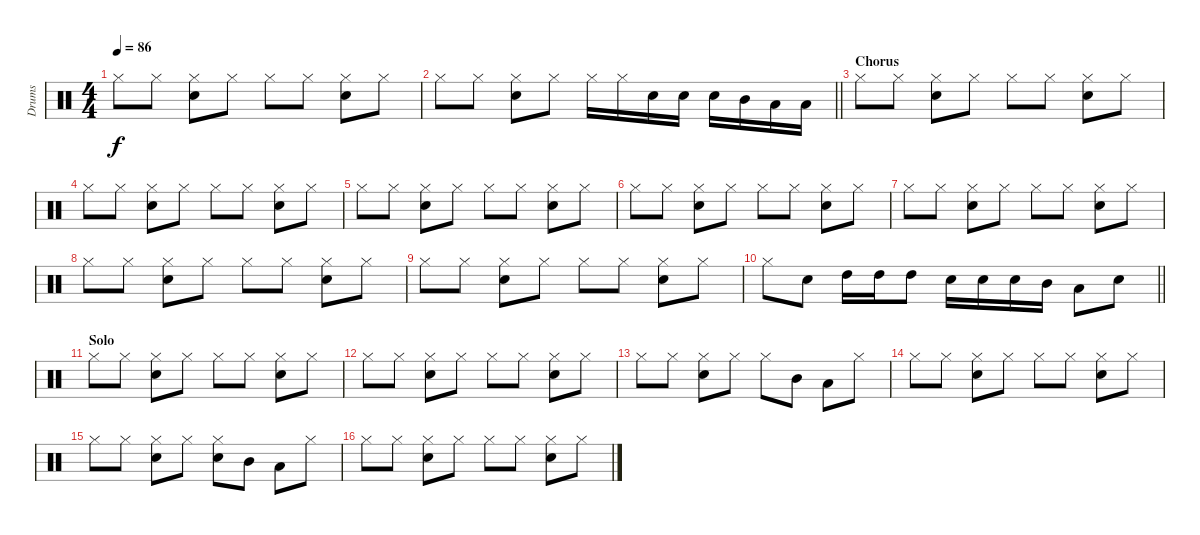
\track ("Drums" "Drums") {instrument percussion}
\staff {score}
\articulation defaults
\ts (4 4)
\tempo 86
\clef neutral
\ks c "Hi-Hat (closed)".8{dy f} "Hi-Hat (closed)".8
("Hi-Hat (closed)" "Snare (hit) 2").8 "Hi-Hat (closed)".8 "Hi-Hat (closed)".8 "Hi-Hat (closed)".8 ("Hi-Hat (closed)" "Snare (hit) 2").8 "Hi-Hat (closed)".8 |
\barLineRight lightlight "Hi-Hat (closed)".8 "Hi-Hat (closed)".8
("Hi-Hat (closed)" "Snare (hit) 2").8 "Hi-Hat (closed)".8 "Hi-Hat (closed)".16 "Hi-Hat (closed)".16 "Snare (hit) 2".16 "Snare (hit) 2".16 "Snare (hit) 2".16 "Mid Tom (hit)".16 "Low Tom (hit)".16 "Low Tom (hit)".16 |
\section ("" "Chorus")
"Hi-Hat (closed)".8 "Hi-Hat (closed)".8 ("Hi-Hat (closed)" "Snare (hit) 2").8 "Hi-Hat (closed)".8 "Hi-Hat (closed)".8 "Hi-Hat (closed)".8 ("Hi-Hat (closed)" "Snare (hit) 2").8 "Hi-Hat (closed)".8 |
"Hi-Hat (closed)".8 "Hi-Hat (closed)".8 ("Hi-Hat (closed)" "Snare (hit) 2").8 "Hi-Hat (closed)".8 "Hi-Hat (closed)".8 "Hi-Hat (closed)".8 ("Hi-Hat (closed)" "Snare (hit) 2").8 "Hi-Hat (closed)".8 |
"Hi-Hat (closed)".8 "Hi-Hat (closed)".8 ("Hi-Hat (closed)" "Snare (hit) 2").8 "Hi-Hat (closed)".8 "Hi-Hat (closed)".8 "Hi-Hat (closed)".8 ("Hi-Hat (closed)" "Snare (hit) 2").8 "Hi-Hat (closed)".8 |
"Hi-Hat (closed)".8 "Hi-Hat (closed)".8 ("Hi-Hat (closed)" "Snare (hit) 2").8 "Hi-Hat (closed)".8 "Hi-Hat (closed)".8 "Hi-Hat (closed)".8 ("Hi-Hat (closed)" "Snare (hit) 2").8 "Hi-Hat (closed)".8 |
"Hi-Hat (closed)".8 "Hi-Hat (closed)".8 ("Hi-Hat (closed)" "Snare (hit) 2").8 "Hi-Hat (closed)".8 "Hi-Hat (closed)".8 "Hi-Hat (closed)".8 ("Hi-Hat (closed)" "Snare (hit) 2").8 "Hi-Hat (closed)".8 |
"Hi-Hat (closed)".8 "Hi-Hat (closed)".8 ("Hi-Hat (closed)" "Snare (hit) 2").8 "Hi-Hat (closed)".8 "Hi-Hat (closed)".8 "Hi-Hat (closed)".8 ("Hi-Hat (closed)" "Snare (hit) 2").8 "Hi-Hat (closed)".8 |
"Hi-Hat (closed)".8 "Hi-Hat (closed)".8 ("Hi-Hat (closed)" "Snare (hit) 2").8 "Hi-Hat (closed)".8 "Hi-Hat (closed)".8 "Hi-Hat (closed)".8 ("Hi-Hat (closed)" "Snare (hit) 2").8 "Hi-Hat (closed)".8 |
\barLineRight lightlight "Hi-Hat (closed)".8 "Snare (hit) 2".8 "High Tom (hit)".16 "High Tom (hit)".16 "High Tom (hit)".8 "Snare (hit) 2".16 "Snare (hit) 2".16 "Snare (hit) 2".16 "Mid Tom (hit)".16 "Low Tom (hit)".8 "Snare (hit) 2".8
|
\section ("" "Solo")
"Hi-Hat (closed)".8 "Hi-Hat (closed)".8 ("Hi-Hat (closed)" "Snare (hit) 2").8 "Hi-Hat (closed)".8 "Hi-Hat (closed)".8 "Hi-Hat (closed)".8 ("Hi-Hat (closed)" "Snare (hit) 2").8 "Hi-Hat (closed)".8 |
"Hi-Hat (closed)".8 "Hi-Hat (closed)".8 ("Hi-Hat (closed)" "Snare (hit) 2").8 "Hi-Hat (closed)".8 "Hi-Hat (closed)".8 "Hi-Hat (closed)".8 ("Hi-Hat (closed)" "Snare (hit) 2").8 "Hi-Hat (closed)".8 |
"Hi-Hat (closed)".8 "Hi-Hat (closed)".8 ("Hi-Hat (closed)" "Snare (hit) 2").8 "Hi-Hat (closed)".8 "Hi-Hat (closed)".8 "Mid Tom (hit)".8 "Low Tom (hit)".8 "Hi-Hat (closed)".8 |
"Hi-Hat (closed)".8 "Hi-Hat (closed)".8 ("Hi-Hat (closed)" "Snare (hit) 2").8 "Hi-Hat (closed)".8 "Hi-Hat (closed)".8 "Hi-Hat (closed)".8 ("Hi-Hat (closed)" "Snare (hit) 2").8 "Hi-Hat (closed)".8 |
"Hi-Hat (closed)".8 "Hi-Hat (closed)".8 ("Hi-Hat (closed)" "Snare (hit) 2").8 "Hi-Hat (closed)".8 ("Hi-Hat (closed)" "Snare (hit) 2").8 "Mid Tom (hit)".8 "Low Tom (hit)".8 "Hi-Hat (closed)".8 |
"Hi-Hat (closed)".8 "Hi-Hat (closed)".8 ("Hi-Hat (closed)" "Snare (hit) 2").8 "Hi-Hat (closed)".8 "Hi-Hat (closed)".8 "Hi-Hat (closed)".8 ("Hi-Hat (closed)" "Snare (hit) 2").8 "Hi-Hat (closed)".8
